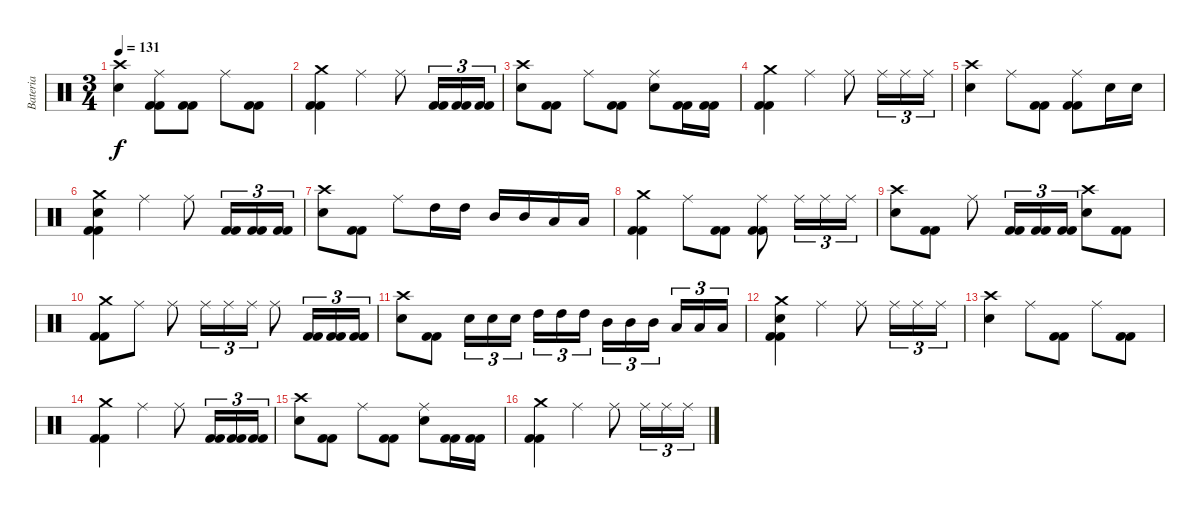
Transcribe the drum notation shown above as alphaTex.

\track ("Bateria" "Bateria") {instrument percussion}
\staff {score}
\articulation defaults
\ts (3 4)
\tempo 131
\clef neutral
\ks c
("Snare (hit) 2" "Crash high (hit)").4{dy f} ("Kick (hit) 2" "Kick (hit) 2" "Ride (middle)").8 ("Kick (hit) 2" "Kick (hit) 2").8 "Ride (middle)".8 ("Kick (hit) 2" "Kick (hit) 2").8 |
("Kick (hit) 2" "Kick (hit) 2" "Crash medium (hit)").4 "Ride (middle)".4 "Ride (middle)".8 ("Kick (hit) 2" "Kick (hit) 2").16{tu (3 2)} ("Kick (hit) 2" "Kick (hit) 2").16{tu (3 2)} ("Kick (hit) 2" "Kick (hit) 2").16{tu (3 2)} |
("Snare (hit) 2" "Crash high (hit)").8 ("Kick (hit) 2" "Kick (hit) 2").8 "Ride (middle)".8 ("Kick (hit) 2" "Kick (hit) 2").8 ("Snare (hit) 2" "Ride (middle)").8 ("Kick (hit) 2" "Kick (hit) 2").16 ("Kick (hit) 2" "Kick (hit) 2").16 |
("Kick (hit) 2" "Kick (hit) 2" "Crash medium (hit)").4 "Ride (middle)".4 "Ride (middle)".8 "Ride (middle)".16{tu (3 2)} "Ride (middle)".16{tu (3 2)} "Ride (middle)".16{tu (3 2)} |
("Snare (hit) 2" "Crash high (hit)").4 "Ride (middle)".8 ("Kick (hit) 2" "Kick (hit) 2").8 ("Kick (hit) 2" "Kick (hit) 2" "Ride (middle)").8 "Snare (hit) 2".16 "Snare (hit) 2".16 |
("Kick (hit) 2" "Kick (hit) 2" "Snare (hit) 2" "Crash medium (hit)").4 "Ride (middle)".4 "Ride (middle)".8 ("Kick (hit) 2" "Kick (hit) 2").16{tu (3 2)} ("Kick (hit) 2" "Kick (hit) 2").16{tu (3 2)} ("Kick (hit) 2" "Kick (hit) 2").16{tu (3 2)} |
("Snare (hit) 2" "Crash high (hit)").8 ("Kick (hit) 2" "Kick (hit) 2").8 "Ride (middle)".8 "High Tom (hit)".16 "High Tom (hit)".16 "Mid Tom (hit)".16 "Mid Tom (hit)".16 "Low Tom (hit)".16 "Low Tom (hit)".16 |
("Kick (hit) 2" "Kick (hit) 2" "Crash medium (hit)").4 "Ride (middle)".8 ("Kick (hit) 2" "Kick (hit) 2").8 ("Kick (hit) 2" "Kick (hit) 2" "Ride (middle)").8 "Ride (middle)".16{tu (3 2)} "Ride (middle)".16{tu (3 2)} "Ride (middle)".16{tu (3 2)} |
("Snare (hit) 2" "Crash high (hit)").8 ("Kick (hit) 2" "Kick (hit) 2").8 "Ride (middle)".8 ("Kick (hit) 2" "Kick (hit) 2").16{tu (3 2)} ("Kick (hit) 2" "Kick (hit) 2").16{tu (3 2)} ("Kick (hit) 2" "Kick (hit) 2").16{tu (3 2)} ("Snare (hit) 2" "Crash high (hit)").8 ("Kick (hit) 2" "Kick (hit) 2").8 |
("Kick (hit) 2" "Kick (hit) 2" "Crash medium (hit)").8 "Ride (middle)".8 "Ride (middle)".8 "Ride (middle)".16{tu (3 2)} "Ride (middle)".16{tu (3 2)} "Ride (middle)".16{tu (3 2)} "Ride (middle)".8 ("Kick (hit) 2" "Kick (hit) 2").16{tu (3 2)} ("Kick (hit) 2" "Kick (hit) 2").16{tu (3 2)} ("Kick (hit) 2" "Kick (hit) 2").16{tu (3 2)} |
("Snare (hit) 2" "Crash high (hit)").8 ("Kick (hit) 2" "Kick (hit) 2").8 "Electric Snare (hit)".16{tu (3 2)} "Electric Snare (hit)".16{tu (3 2)} "Electric Snare (hit)".16{tu (3 2)} "High Tom (hit)".16{tu (3 2)} "High Tom (hit)".16{tu (3 2)} "High Tom (hit)".16{tu (3 2)} "Mid Tom (hit)".16{tu (3 2)} "Mid Tom (hit)".16{tu (3 2)} "Mid Tom (hit)".16{tu (3 2)} "Low Tom (hit)".16{tu (3 2)} "Low Tom (hit)".16{tu (3 2)} "Low Tom (hit)".16{tu (3 2)} |
("Kick (hit) 2" "Kick (hit) 2" "Snare (hit) 2" "Crash medium (hit)").4 "Ride (middle)".4 "Ride (middle)".8 "Ride (middle)".16{tu (3 2)} "Ride (middle)".16{tu (3 2)} "Ride (middle)".16{tu (3 2)} |
("Snare (hit) 2" "Crash high (hit)").4 "Ride (middle)".8 ("Kick (hit) 2" "Kick (hit) 2").8 "Ride (middle)".8 ("Kick (hit) 2" "Kick (hit) 2").8 |
("Kick (hit) 2" "Kick (hit) 2" "Crash medium (hit)").4 "Ride (middle)".4 "Ride (middle)".8 ("Kick (hit) 2" "Kick (hit) 2").16{tu (3 2)} ("Kick (hit) 2" "Kick (hit) 2").16{tu (3 2)} ("Kick (hit) 2" "Kick (hit) 2").16{tu (3 2)} |
("Snare (hit) 2" "Crash high (hit)").8 ("Kick (hit) 2" "Kick (hit) 2").8 "Ride (middle)".8 ("Kick (hit) 2" "Kick (hit) 2").8 ("Snare (hit) 2" "Ride (middle)").8 ("Kick (hit) 2" "Kick (hit) 2").16 ("Kick (hit) 2" "Kick (hit) 2").16 |
("Kick (hit) 2" "Kick (hit) 2" "Crash medium (hit)").4 "Ride (middle)".4 "Ride (middle)".8 "Ride (middle)".16{tu (3 2)} "Ride (middle)".16{tu (3 2)} "Ride (middle)".16{tu (3 2)}
